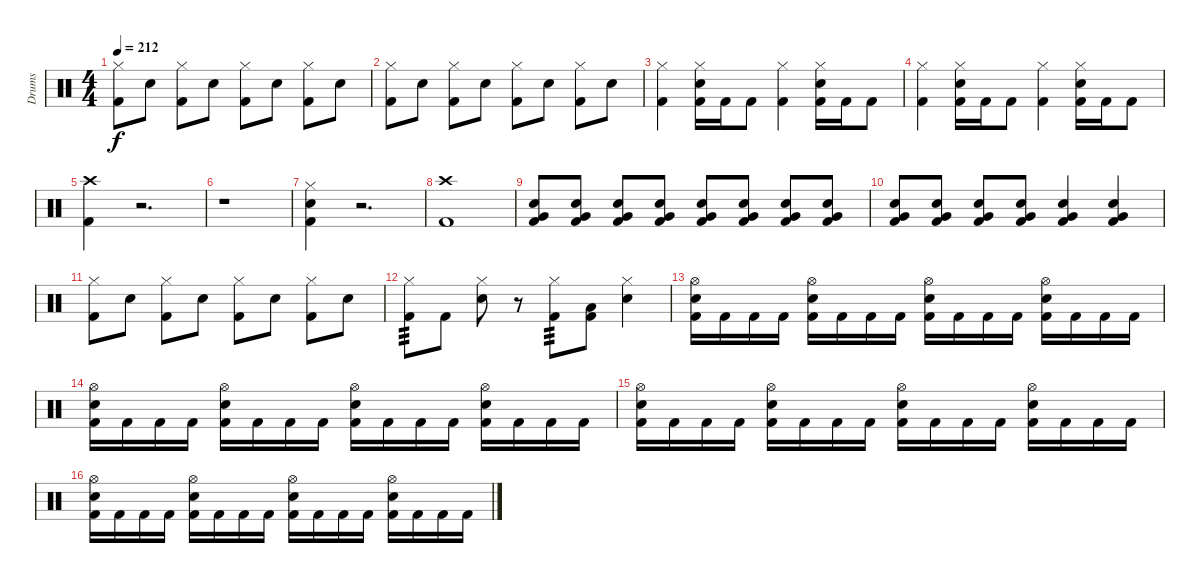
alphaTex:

\track ("Drums" "Drums") {instrument percussion}
\staff {score}
\articulation defaults
\ts (4 4)
\tempo 212
\clef neutral
\ks c
("Hi-Hat (closed)" "Kick (hit) 2").8{dy f} "Snare (hit) 2".8 ("Hi-Hat (closed)" "Kick (hit) 2").8 "Snare (hit) 2".8 ("Hi-Hat (closed)" "Kick (hit) 2").8 "Snare (hit) 2".8 ("Hi-Hat (closed)" "Kick (hit) 2").8 "Snare (hit) 2".8 |
("Hi-Hat (closed)" "Kick (hit) 2").8 "Snare (hit) 2".8 ("Hi-Hat (closed)" "Kick (hit) 2").8 "Snare (hit) 2".8 ("Hi-Hat (closed)" "Kick (hit) 2").8 "Snare (hit) 2".8 ("Hi-Hat (closed)" "Kick (hit) 2").8 "Snare (hit) 2".8 |
("Hi-Hat (closed)" "Kick (hit) 2").4 ("Hi-Hat (closed)" "Snare (hit) 2" "Kick (hit) 2").16 "Kick (hit) 2".16 "Kick (hit) 2".8 ("Hi-Hat (closed)" "Kick (hit) 2").4 ("Hi-Hat (closed)" "Snare (hit) 2" "Kick (hit) 2").16 "Kick (hit) 2".16 "Kick (hit) 2".8 |
("Hi-Hat (closed)" "Kick (hit) 2").4 ("Hi-Hat (closed)" "Snare (hit) 2" "Kick (hit) 2").16 "Kick (hit) 2".16 "Kick (hit) 2".8 ("Hi-Hat (closed)" "Kick (hit) 2").4 ("Hi-Hat (closed)" "Snare (hit) 2" "Kick (hit) 2").16 "Kick (hit) 2".16 "Kick (hit) 2".8 |
("Crash high (hit)" "Kick (hit) 2").4 r.2{d} |
r.1 |
("Hi-Hat (closed)" "Snare (hit) 2" "Kick (hit) 2").4 r.2{d} |
("Crash high (hit)" "Kick (hit) 2").1 |
("Very Low Tom (hit)" "Snare (hit) 2" "Kick (hit) 2").8 ("Very Low Tom (hit)" "Snare (hit) 2" "Kick (hit) 2").8 ("Very Low Tom (hit)" "Snare (hit) 2" "Kick (hit) 2").8 ("Very Low Tom (hit)" "Snare (hit) 2" "Kick (hit) 2").8 ("Very Low Tom (hit)" "Snare (hit) 2" "Kick (hit) 2").8 ("Very Low Tom (hit)" "Snare (hit) 2" "Kick (hit) 2").8 ("Very Low Tom (hit)" "Snare (hit) 2" "Kick (hit) 2").8 ("Very Low Tom (hit)" "Snare (hit) 2" "Kick (hit) 2").8 |
("Very Low Tom (hit)" "Snare (hit) 2" "Kick (hit) 2").8 ("Very Low Tom (hit)" "Snare (hit) 2" "Kick (hit) 2").8 ("Very Low Tom (hit)" "Snare (hit) 2" "Kick (hit) 2").8 ("Very Low Tom (hit)" "Snare (hit) 2" "Kick (hit) 2").8 ("Very Low Tom (hit)" "Snare (hit) 2" "Kick (hit) 2").4 ("Very Low Tom (hit)" "Snare (hit) 2" "Kick (hit) 2").4 |
("Hi-Hat (closed)" "Kick (hit) 2").8 "Snare (hit) 2".8 ("Hi-Hat (closed)" "Kick (hit) 2").8 "Snare (hit) 2".8 ("Hi-Hat (closed)" "Kick (hit) 2").8 "Snare (hit) 2".8 ("Hi-Hat (closed)" "Kick (hit) 2").8 "Snare (hit) 2".8 |
("Hi-Hat (closed)" "Kick (hit) 2").8{tp 3} "Kick (hit) 2".8 ("Hi-Hat (closed)" "Snare (hit) 2").8 r.8 ("Hi-Hat (closed)" "Kick (hit) 2").8{tp 3} ("Low Tom (hit)" "Kick (hit) 2").8 ("Hi-Hat (closed)" "Snare (hit) 2").4 |
("Hi-Hat (open)" "Snare (hit) 2" "Kick (hit) 2").16 "Kick (hit) 2".16 "Kick (hit) 2".16 "Kick (hit) 2".16 ("Hi-Hat (open)" "Snare (hit) 2" "Kick (hit) 2").16 "Kick (hit) 2".16 "Kick (hit) 2".16 "Kick (hit) 2".16 ("Hi-Hat (open)" "Snare (hit) 2" "Kick (hit) 2").16 "Kick (hit) 2".16 "Kick (hit) 2".16 "Kick (hit) 2".16 ("Hi-Hat (open)" "Snare (hit) 2" "Kick (hit) 2").16 "Kick (hit) 2".16 "Kick (hit) 2".16 "Kick (hit) 2".16 |
("Hi-Hat (open)" "Snare (hit) 2" "Kick (hit) 2").16 "Kick (hit) 2".16 "Kick (hit) 2".16 "Kick (hit) 2".16 ("Hi-Hat (open)" "Snare (hit) 2" "Kick (hit) 2").16 "Kick (hit) 2".16 "Kick (hit) 2".16 "Kick (hit) 2".16 ("Hi-Hat (open)" "Snare (hit) 2" "Kick (hit) 2").16 "Kick (hit) 2".16 "Kick (hit) 2".16 "Kick (hit) 2".16 ("Hi-Hat (open)" "Snare (hit) 2" "Kick (hit) 2").16 "Kick (hit) 2".16 "Kick (hit) 2".16 "Kick (hit) 2".16 |
("Hi-Hat (open)" "Snare (hit) 2" "Kick (hit) 2").16 "Kick (hit) 2".16 "Kick (hit) 2".16 "Kick (hit) 2".16 ("Hi-Hat (open)" "Snare (hit) 2" "Kick (hit) 2").16 "Kick (hit) 2".16 "Kick (hit) 2".16 "Kick (hit) 2".16 ("Hi-Hat (open)" "Snare (hit) 2" "Kick (hit) 2").16 "Kick (hit) 2".16 "Kick (hit) 2".16 "Kick (hit) 2".16 ("Hi-Hat (open)" "Snare (hit) 2" "Kick (hit) 2").16 "Kick (hit) 2".16 "Kick (hit) 2".16 "Kick (hit) 2".16 |
("Hi-Hat (open)" "Snare (hit) 2" "Kick (hit) 2").16 "Kick (hit) 2".16 "Kick (hit) 2".16 "Kick (hit) 2".16 ("Hi-Hat (open)" "Snare (hit) 2" "Kick (hit) 2").16 "Kick (hit) 2".16 "Kick (hit) 2".16 "Kick (hit) 2".16 ("Hi-Hat (open)" "Snare (hit) 2" "Kick (hit) 2").16 "Kick (hit) 2".16 "Kick (hit) 2".16 "Kick (hit) 2".16 ("Hi-Hat (open)" "Snare (hit) 2" "Kick (hit) 2").16 "Kick (hit) 2".16 "Kick (hit) 2".16 "Kick (hit) 2".16
